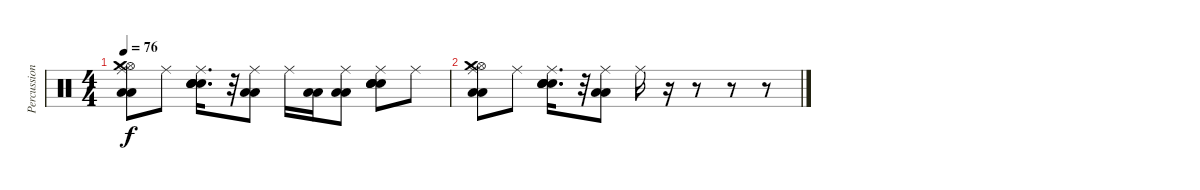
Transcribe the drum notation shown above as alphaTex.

\track ("Percussion" "Percussion") {instrument percussion}
\staff {score}
\articulation defaults
\ts (4 4)
\tempo 76
\clef neutral
\ks c
("Hi-Hat (open)" "Low Floor Tom (hit)" "Low Floor Tom (hit)" "Ride (middle)" "Crash medium (hit)").8{dy f} "Ride (middle)".8 ("Electric Snare (hit)" "Electric Snare (hit)" "Snare (hit) 2" "Ride (middle)" "Snare (hit) 2").16{d} r.32 ("Low Floor Tom (hit)" "Low Floor Tom (hit)" "Ride (middle)").8 "Ride (middle)".16 ("Low Floor Tom (hit)" "Low Floor Tom (hit)").16 ("Low Floor Tom (hit)" "Low Floor Tom (hit)" "Ride (middle)").8 ("Electric Snare (hit)" "Electric Snare (hit)" "Snare (hit) 2" "Ride (middle)" "Snare (hit) 2").8 "Ride (middle)".8 |
("Hi-Hat (open)" "Low Floor Tom (hit)" "Low Floor Tom (hit)" "Ride (middle)" "Crash medium (hit)").8 "Ride (middle)".8 ("Electric Snare (hit)" "Electric Snare (hit)" "Snare (hit) 2" "Ride (middle)" "Snare (hit) 2").16{d} r.32 ("Low Floor Tom (hit)" "Low Floor Tom (hit)" "Ride (middle)").8 "Ride (middle)".16 r.16 r.8 r.8 r.8
